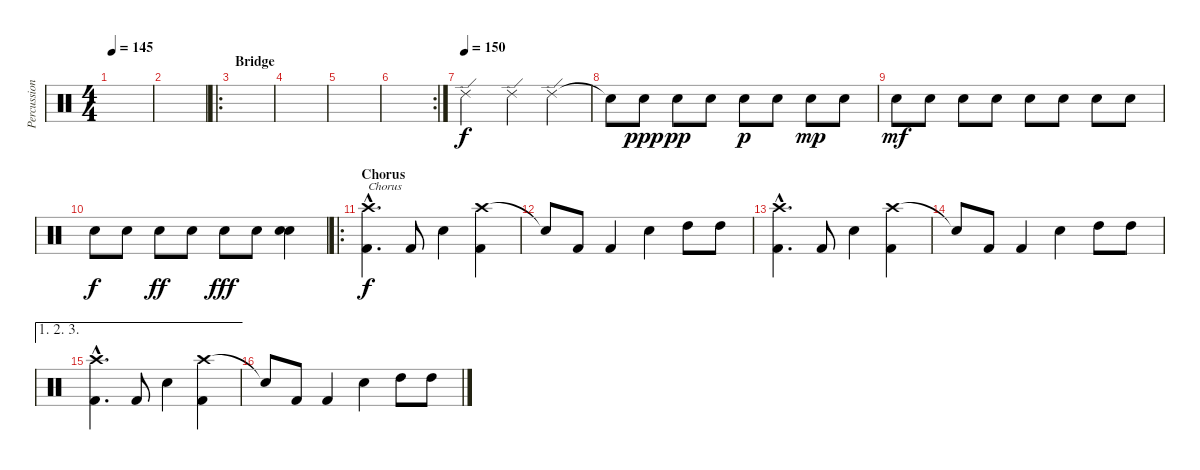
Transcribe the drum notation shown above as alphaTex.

\track ("Percussion" "Percussion") {instrument percussion}
\staff {score}
\articulation defaults
\ts (4 4)
\tempo 145
\clef neutral
\ks c
|
|
\ro
\section ("" "Bridge")
|
|
|
\rc 2
|
\tempo (150)
"Ride (edge) 2".2 "Ride (edge) 2".4 "Ride (edge) 2".4 |
"Snare (hit)"{t}.8 "Electric Snare (hit)".8{dy ppp} "Electric Snare (hit)".8{dy pp} "Electric Snare (hit)".8 "Electric Snare (hit)".8{dy p} "Electric Snare (hit)".8 "Electric Snare (hit)".8{dy mp} "Electric Snare (hit)".8 |
"Electric Snare (hit)".8{dy mf} "Electric Snare (hit)".8 "Electric Snare (hit)".8 "Electric Snare (hit)".8 "Electric Snare (hit)".8 "Electric Snare (hit)".8 "Electric Snare (hit)".8 "Electric Snare (hit)".8 |
"Electric Snare (hit)".8{dy f} "Electric Snare (hit)".8 "Electric Snare (hit)".8{dy ff} "Electric Snare (hit)".8 "Electric Snare (hit)".8{dy fff} "Electric Snare (hit)".8 ("Snare (hit) 2" "Electric Snare (hit)").4 |
\ro
\section ("" "Chorus")
("Crash high (hit)"{hac} "Kick (hit) 2"{hac}).4{d txt "Chorus" dy f} "Kick (hit) 2".8 "Electric Snare (hit)".4 ("Crash high (hit)" "Kick (hit) 2").4 |
"Snare (hit)"{t}.8 "Kick (hit) 2".8 "Kick (hit) 2".4 "Electric Snare (hit)".4 "High Tom (hit)".8 "High Tom (hit)".8 |
("Crash high (hit)"{hac} "Kick (hit) 2"{hac}).4{d} "Kick (hit) 2".8 "Electric Snare (hit)".4 ("Crash high (hit)" "Kick (hit) 2").4 |
"Snare (hit)"{t}.8 "Kick (hit) 2".8 "Kick (hit) 2".4 "Electric Snare (hit)".4 "High Tom (hit)".8 "High Tom (hit)".8 |
\ae (1 2 3)
("Crash high (hit)"{hac} "Kick (hit) 2"{hac}).4{d} "Kick (hit) 2".8 "Electric Snare (hit)".4 ("Crash high (hit)" "Kick (hit) 2").4 |
"Snare (hit)"{t}.8 "Kick (hit) 2".8 "Kick (hit) 2".4 "Electric Snare (hit)".4 "High Tom (hit)".8 "High Tom (hit)".8
